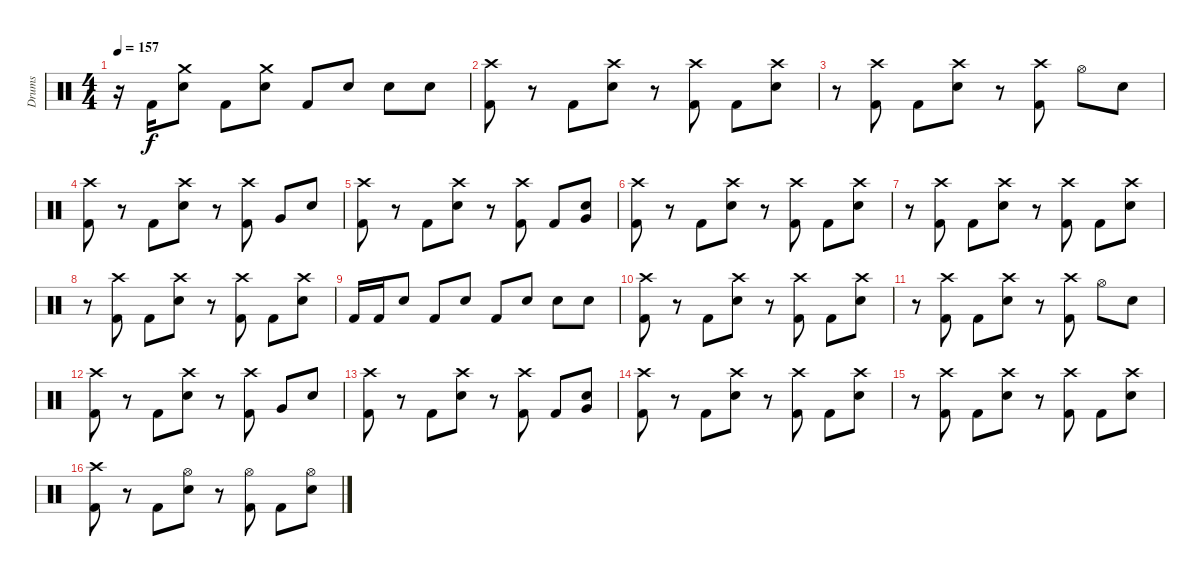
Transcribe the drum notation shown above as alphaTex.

\track ("Drums" "Drums") {instrument percussion}
\staff {score}
\articulation defaults
\ts (4 4)
\tempo 157
\clef neutral
\ks c
r.16{dy f} "Kick (hit) 2".16 ("Crash medium (hit)" "Electric Snare (hit)").8 "Kick (hit) 2".8 ("Crash medium (hit)" "Electric Snare (hit)").8 "Kick (hit) 2".8 "Electric Snare (hit)".8 "Electric Snare (hit)".8 "Electric Snare (hit)".8 |
("Crash high (hit)" "Kick (hit) 2").8 r.8 "Kick (hit) 2".8 ("Crash high (hit)" "Electric Snare (hit)").8 r.8 ("Crash high (hit)" "Kick (hit) 2").8 "Kick (hit) 2".8 ("Crash high (hit)" "Electric Snare (hit)").8 |
r.8 ("Crash high (hit)" "Kick (hit) 2").8 "Kick (hit) 2".8 ("Crash high (hit)" "Electric Snare (hit)").8 r.8 ("Crash high (hit)" "Kick (hit) 2").8 "Hi-Hat (open)".8 "Electric Snare (hit)".8 |
("Crash high (hit)" "Kick (hit) 2").8 r.8 "Kick (hit) 2".8 ("Crash high (hit)" "Electric Snare (hit)").8 r.8 ("Crash high (hit)" "Kick (hit) 2").8 "Very Low Tom (hit)".8 "Electric Snare (hit)".8 |
("Crash high (hit)" "Kick (hit) 2").8 r.8 "Kick (hit) 2".8 ("Crash high (hit)" "Electric Snare (hit)").8 r.8 ("Crash high (hit)" "Kick (hit) 2").8 "Kick (hit) 2".8 ("Very Low Tom (hit)" "Electric Snare (hit)").8 |
("Crash high (hit)" "Kick (hit) 2").8 r.8 "Kick (hit) 2".8 ("Crash high (hit)" "Electric Snare (hit)").8 r.8 ("Crash high (hit)" "Kick (hit) 2").8 "Kick (hit) 2".8 ("Crash high (hit)" "Electric Snare (hit)").8 |
r.8 ("Crash high (hit)" "Kick (hit) 2").8 "Kick (hit) 2".8 ("Crash high (hit)" "Electric Snare (hit)").8 r.8 ("Crash high (hit)" "Kick (hit) 2").8 "Kick (hit) 2".8 ("Crash high (hit)" "Electric Snare (hit)").8 |
r.8 ("Crash high (hit)" "Kick (hit) 2").8 "Kick (hit) 2".8 ("Crash high (hit)" "Electric Snare (hit)").8 r.8 ("Crash high (hit)" "Kick (hit) 2").8 "Kick (hit) 2".8 ("Crash high (hit)" "Electric Snare (hit)").8 |
"Kick (hit) 2".16 "Kick (hit) 2".16 "Electric Snare (hit)".8 "Kick (hit) 2".8 "Electric Snare (hit)".8 "Kick (hit) 2".8 "Electric Snare (hit)".8 "Electric Snare (hit)".8 "Electric Snare (hit)".8 |
("Crash high (hit)" "Kick (hit) 2").8 r.8 "Kick (hit) 2".8 ("Crash high (hit)" "Electric Snare (hit)").8 r.8 ("Crash high (hit)" "Kick (hit) 2").8 "Kick (hit) 2".8 ("Crash high (hit)" "Electric Snare (hit)").8 |
r.8 ("Crash high (hit)" "Kick (hit) 2").8 "Kick (hit) 2".8 ("Crash high (hit)" "Electric Snare (hit)").8 r.8 ("Crash high (hit)" "Kick (hit) 2").8 "Hi-Hat (open)".8 "Electric Snare (hit)".8 |
("Crash high (hit)" "Kick (hit) 2").8 r.8 "Kick (hit) 2".8 ("Crash high (hit)" "Electric Snare (hit)").8 r.8 ("Crash high (hit)" "Kick (hit) 2").8 "Very Low Tom (hit)".8 "Electric Snare (hit)".8 |
("Crash high (hit)" "Kick (hit) 2").8 r.8 "Kick (hit) 2".8 ("Crash high (hit)" "Electric Snare (hit)").8 r.8 ("Crash high (hit)" "Kick (hit) 2").8 "Kick (hit) 2".8 ("Very Low Tom (hit)" "Electric Snare (hit)").8 |
("Crash high (hit)" "Kick (hit) 2").8 r.8 "Kick (hit) 2".8 ("Crash high (hit)" "Electric Snare (hit)").8 r.8 ("Crash high (hit)" "Kick (hit) 2").8 "Kick (hit) 2".8 ("Crash high (hit)" "Electric Snare (hit)").8 |
r.8 ("Crash high (hit)" "Kick (hit) 2").8 "Kick (hit) 2".8 ("Crash high (hit)" "Electric Snare (hit)").8 r.8 ("Crash high (hit)" "Kick (hit) 2").8 "Kick (hit) 2".8 ("Crash high (hit)" "Electric Snare (hit)").8 |
("Crash high (hit)" "Kick (hit) 2").8 r.8 "Kick (hit) 2".8 ("Hi-Hat (open)" "Electric Snare (hit)").8 r.8 ("Hi-Hat (open)" "Kick (hit) 2").8 "Kick (hit) 2".8 ("Hi-Hat (open)" "Electric Snare (hit)").8
